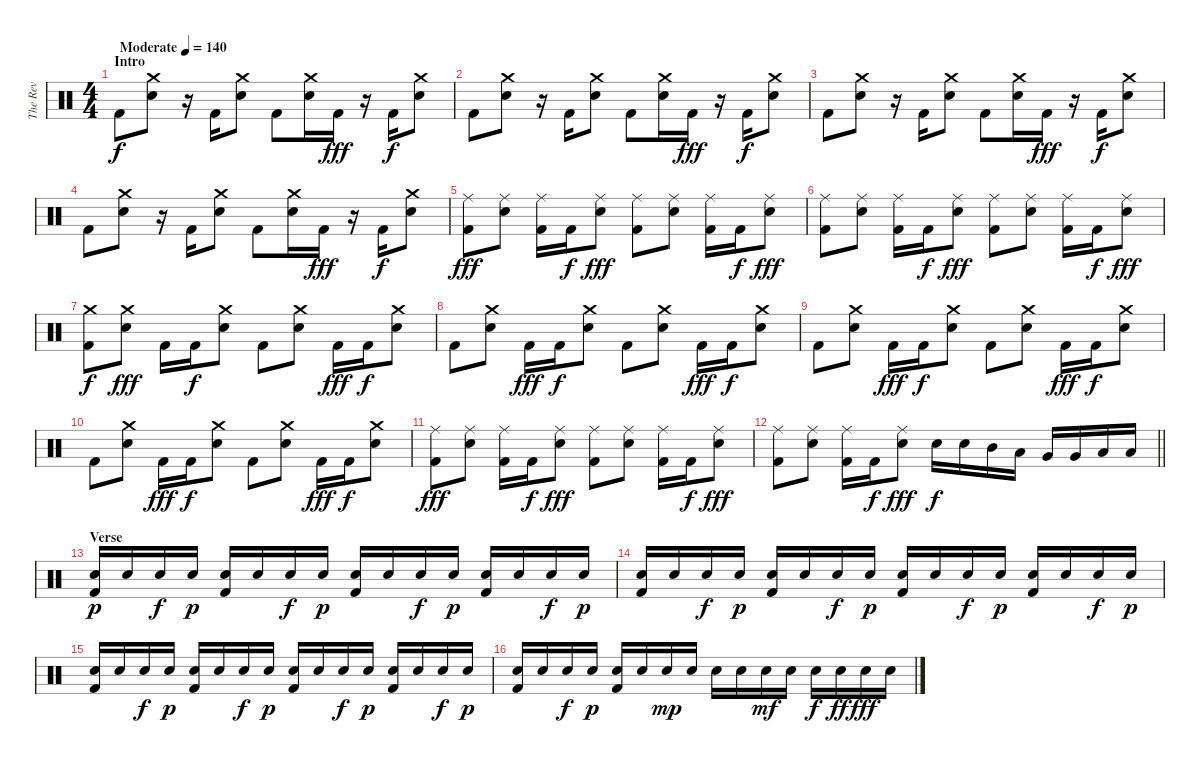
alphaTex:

\track ("The Rev" "The Rev") {instrument percussion}
\staff {score}
\articulation defaults
\ts (4 4)
\section ("" "Intro")
\tempo (140 "Moderate")
\clef neutral
\ks c "Kick (hit) 2".8{dy f}
("Crash medium (hit)" "Snare (hit) 2").8 r.16 "Kick (hit) 2".16 ("Crash medium (hit)" "Snare (hit) 2").8 "Kick (hit) 2".8 ("Crash medium (hit)" "Snare (hit) 2").16 "Kick (hit) 2".16{dy fff} r.16 "Kick (hit) 2".16{dy f} ("Crash medium (hit)" "Snare (hit) 2").8 |
"Kick (hit) 2".8 ("Crash medium (hit)" "Snare (hit) 2").8 r.16 "Kick (hit) 2".16 ("Crash medium (hit)" "Snare (hit) 2").8 "Kick (hit) 2".8 ("Crash medium (hit)" "Snare (hit) 2").16 "Kick (hit) 2".16{dy fff} r.16 "Kick (hit) 2".16{dy f} ("Crash medium (hit)" "Snare (hit) 2").8 |
"Kick (hit) 2".8 ("Crash medium (hit)" "Snare (hit) 2").8 r.16 "Kick (hit) 2".16 ("Crash medium (hit)" "Snare (hit) 2").8 "Kick (hit) 2".8 ("Crash medium (hit)" "Snare (hit) 2").16 "Kick (hit) 2".16{dy fff} r.16 "Kick (hit) 2".16{dy f} ("Crash medium (hit)" "Snare (hit) 2").8 |
"Kick (hit) 2".8 ("Crash medium (hit)" "Snare (hit) 2").8 r.16 "Kick (hit) 2".16 ("Crash medium (hit)" "Snare (hit) 2").8 "Kick (hit) 2".8 ("Crash medium (hit)" "Snare (hit) 2").16 "Kick (hit) 2".16{dy fff} r.16 "Kick (hit) 2".16{dy f} ("Crash medium (hit)" "Snare (hit) 2").8 |
("Ride (middle)" "Kick (hit) 2").8{dy fff} ("Ride (middle)" "Snare (hit) 2").8 ("Ride (middle)" "Kick (hit) 2").16 "Kick (hit) 2".16{dy f} ("Ride (middle)" "Snare (hit) 2").8{dy fff} ("Ride (middle)" "Kick (hit) 2").8 ("Ride (middle)" "Snare (hit) 2").8 ("Ride (middle)" "Kick (hit) 2").16 "Kick (hit) 2".16{dy f} ("Ride (middle)" "Snare (hit) 2").8{dy fff} |
("Ride (middle)" "Kick (hit) 2").8 ("Ride (middle)" "Snare (hit) 2").8 ("Ride (middle)" "Kick (hit) 2").16 "Kick (hit) 2".16{dy f} ("Ride (middle)" "Snare (hit) 2").8{dy fff} ("Ride (middle)" "Kick (hit) 2").8 ("Ride (middle)" "Snare (hit) 2").8 ("Ride (middle)" "Kick (hit) 2").16 "Kick (hit) 2".16{dy f} ("Ride (middle)" "Snare (hit) 2").8{dy fff} |
("Crash medium (hit)" "Kick (hit) 2").8{dy f} ("Crash medium (hit)" "Snare (hit) 2").8{dy fff} "Kick (hit) 2".16 "Kick (hit) 2".16{dy f} ("Crash medium (hit)" "Snare (hit) 2").8 "Kick (hit) 2".8 ("Crash medium (hit)" "Snare (hit) 2").8 "Kick (hit) 2".16{dy fff} "Kick (hit) 2".16{dy f} ("Crash medium (hit)" "Snare (hit) 2").8 |
"Kick (hit) 2".8 ("Crash medium (hit)" "Snare (hit) 2").8 "Kick (hit) 2".16{dy fff} "Kick (hit) 2".16{dy f} ("Crash medium (hit)" "Snare (hit) 2").8 "Kick (hit) 2".8 ("Crash medium (hit)" "Snare (hit) 2").8 "Kick (hit) 2".16{dy fff} "Kick (hit) 2".16{dy f} ("Crash medium (hit)" "Snare (hit) 2").8 |
"Kick (hit) 2".8 ("Crash medium (hit)" "Snare (hit) 2").8 "Kick (hit) 2".16{dy fff} "Kick (hit) 2".16{dy f} ("Crash medium (hit)" "Snare (hit) 2").8 "Kick (hit) 2".8 ("Crash medium (hit)" "Snare (hit) 2").8 "Kick (hit) 2".16{dy fff} "Kick (hit) 2".16{dy f} ("Crash medium (hit)" "Snare (hit) 2").8 |
"Kick (hit) 2".8 ("Crash medium (hit)" "Snare (hit) 2").8 "Kick (hit) 2".16{dy fff} "Kick (hit) 2".16{dy f} ("Crash medium (hit)" "Snare (hit) 2").8 "Kick (hit) 2".8 ("Crash medium (hit)" "Snare (hit) 2").8 "Kick (hit) 2".16{dy fff} "Kick (hit) 2".16{dy f} ("Crash medium (hit)" "Snare (hit) 2").8 |
("Ride (middle)" "Kick (hit) 2").8{dy fff} ("Ride (middle)" "Snare (hit) 2").8 ("Ride (middle)" "Kick (hit) 2").16 "Kick (hit) 2".16{dy f} ("Ride (middle)" "Snare (hit) 2").8{dy fff} ("Ride (middle)" "Kick (hit) 2").8 ("Ride (middle)" "Snare (hit) 2").8 ("Ride (middle)" "Kick (hit) 2").16 "Kick (hit) 2".16{dy f} ("Ride (middle)" "Snare (hit) 2").8{dy fff} |
\barLineRight lightlight
("Ride (middle)" "Kick (hit) 2").8 ("Ride (middle)" "Snare (hit) 2").8 ("Ride (middle)" "Kick (hit) 2").16 "Kick (hit) 2".16{dy f} ("Ride (middle)" "Snare (hit) 2").8{dy fff} "Snare (hit) 2".16{dy f} "Snare (hit) 2".16 "Mid Tom (hit)".16 "Low Tom (hit)".16 "Very Low Tom (hit)".16 "Very Low Tom (hit)".16 "Low Floor Tom (hit)".16 "Low Floor Tom (hit)".16 |
\section ("" "Verse")
("Snare (hit) 2" "Kick (hit) 2").16{dy p} "Snare (hit) 2".16 "Snare (hit) 2".16{dy f} "Snare (hit) 2".16{dy p} ("Snare (hit) 2" "Kick (hit) 2").16 "Snare (hit) 2".16 "Snare (hit) 2".16{dy f} "Snare (hit) 2".16{dy p} ("Snare (hit) 2" "Kick (hit) 2").16 "Snare (hit) 2".16 "Snare (hit) 2".16{dy f} "Snare (hit) 2".16{dy p} ("Snare (hit) 2" "Kick (hit) 2").16 "Snare (hit) 2".16 "Snare (hit) 2".16{dy f} "Snare (hit) 2".16{dy p} |
("Snare (hit) 2" "Kick (hit) 2").16 "Snare (hit) 2".16 "Snare (hit) 2".16{dy f} "Snare (hit) 2".16{dy p} ("Snare (hit) 2" "Kick (hit) 2").16 "Snare (hit) 2".16 "Snare (hit) 2".16{dy f} "Snare (hit) 2".16{dy p} ("Snare (hit) 2" "Kick (hit) 2").16 "Snare (hit) 2".16 "Snare (hit) 2".16{dy f} "Snare (hit) 2".16{dy p} ("Snare (hit) 2" "Kick (hit) 2").16 "Snare (hit) 2".16 "Snare (hit) 2".16{dy f} "Snare (hit) 2".16{dy p} |
("Snare (hit) 2" "Kick (hit) 2").16 "Snare (hit) 2".16 "Snare (hit) 2".16{dy f} "Snare (hit) 2".16{dy p} ("Snare (hit) 2" "Kick (hit) 2").16 "Snare (hit) 2".16 "Snare (hit) 2".16{dy f} "Snare (hit) 2".16{dy p} ("Snare (hit) 2" "Kick (hit) 2").16 "Snare (hit) 2".16 "Snare (hit) 2".16{dy f} "Snare (hit) 2".16{dy p} ("Snare (hit) 2" "Kick (hit) 2").16 "Snare (hit) 2".16 "Snare (hit) 2".16{dy f} "Snare (hit) 2".16{dy p} |
("Snare (hit) 2" "Kick (hit) 2").16 "Snare (hit) 2".16 "Snare (hit) 2".16{dy f} "Snare (hit) 2".16{dy p} ("Snare (hit) 2" "Kick (hit) 2").16 "Snare (hit) 2".16 "Snare (hit) 2".16{dy mp} "Snare (hit) 2".16 "Snare (hit) 2".16 "Snare (hit) 2".16 "Snare (hit) 2".16{dy mf} "Snare (hit) 2".16 "Snare (hit) 2".16{dy f} "Snare (hit) 2".16{dy ff} "Snare (hit) 2".16{dy fff} "Snare (hit) 2".16
